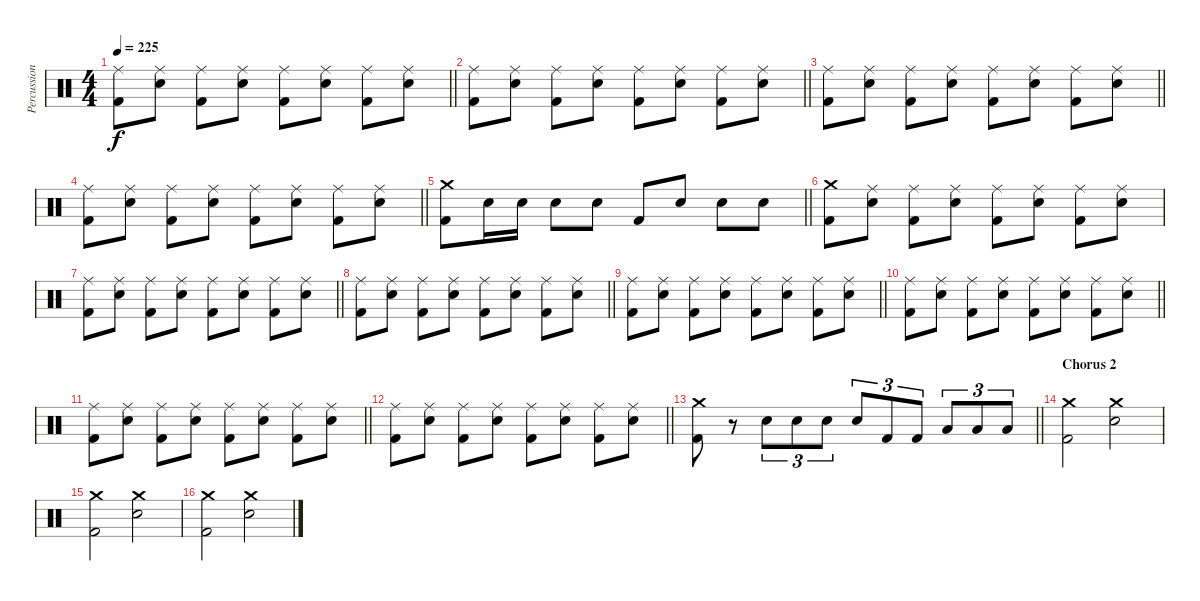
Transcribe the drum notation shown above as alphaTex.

\track ("Percussion" "Percussion") {instrument percussion}
\staff {score}
\articulation defaults
\ts (4 4)
\tempo 225
\clef neutral
\barLineRight lightlight
\ks c
("Ride (middle)" "Kick (hit) 2").8{dy f} ("Ride (middle)" "Electric Snare (hit)").8 ("Ride (middle)" "Kick (hit) 2").8 ("Ride (middle)" "Electric Snare (hit)").8 ("Ride (middle)" "Kick (hit) 2").8 ("Ride (middle)" "Electric Snare (hit)").8 ("Ride (middle)" "Kick (hit) 2").8 ("Ride (middle)" "Electric Snare (hit)").8 |
\barLineRight lightlight
("Ride (middle)" "Kick (hit) 2").8 ("Ride (middle)" "Electric Snare (hit)").8 ("Ride (middle)" "Kick (hit) 2").8 ("Ride (middle)" "Electric Snare (hit)").8 ("Ride (middle)" "Kick (hit) 2").8 ("Ride (middle)" "Electric Snare (hit)").8 ("Ride (middle)" "Kick (hit) 2").8 ("Ride (middle)" "Electric Snare (hit)").8 |
\barLineRight lightlight
("Ride (middle)" "Kick (hit) 2").8 ("Ride (middle)" "Electric Snare (hit)").8 ("Ride (middle)" "Kick (hit) 2").8 ("Ride (middle)" "Electric Snare (hit)").8 ("Ride (middle)" "Kick (hit) 2").8 ("Ride (middle)" "Electric Snare (hit)").8 ("Ride (middle)" "Kick (hit) 2").8 ("Ride (middle)" "Electric Snare (hit)").8 |
\barLineRight lightlight
("Ride (middle)" "Kick (hit) 2").8 ("Ride (middle)" "Electric Snare (hit)").8 ("Ride (middle)" "Kick (hit) 2").8 ("Ride (middle)" "Electric Snare (hit)").8 ("Ride (middle)" "Kick (hit) 2").8 ("Ride (middle)" "Electric Snare (hit)").8 ("Ride (middle)" "Kick (hit) 2").8 ("Ride (middle)" "Electric Snare (hit)").8 |
\barLineRight lightlight
("Crash medium (hit)" "Kick (hit) 2").8 "Electric Snare (hit)".16 "Electric Snare (hit)".16 "Electric Snare (hit)".8 "Electric Snare (hit)".8 "Kick (hit) 2".8 "Electric Snare (hit)".8 "Electric Snare (hit)".8 "Electric Snare (hit)".8 |
("Crash medium (hit)" "Kick (hit) 2").8 ("Ride (middle)" "Electric Snare (hit)").8 ("Ride (middle)" "Kick (hit) 2").8 ("Ride (middle)" "Electric Snare (hit)").8 ("Ride (middle)" "Kick (hit) 2").8 ("Ride (middle)" "Electric Snare (hit)").8 ("Ride (middle)" "Kick (hit) 2").8 ("Ride (middle)" "Electric Snare (hit)").8 |
\barLineRight lightlight
("Ride (middle)" "Kick (hit) 2").8 ("Ride (middle)" "Electric Snare (hit)").8 ("Ride (middle)" "Kick (hit) 2").8 ("Ride (middle)" "Electric Snare (hit)").8 ("Ride (middle)" "Kick (hit) 2").8 ("Ride (middle)" "Electric Snare (hit)").8 ("Ride (middle)" "Kick (hit) 2").8 ("Ride (middle)" "Electric Snare (hit)").8 |
\barLineRight lightlight
("Ride (middle)" "Kick (hit) 2").8 ("Ride (middle)" "Electric Snare (hit)").8 ("Ride (middle)" "Kick (hit) 2").8 ("Ride (middle)" "Electric Snare (hit)").8 ("Ride (middle)" "Kick (hit) 2").8 ("Ride (middle)" "Electric Snare (hit)").8 ("Ride (middle)" "Kick (hit) 2").8 ("Ride (middle)" "Electric Snare (hit)").8 |
\barLineRight lightlight
("Ride (middle)" "Kick (hit) 2").8 ("Ride (middle)" "Electric Snare (hit)").8 ("Ride (middle)" "Kick (hit) 2").8 ("Ride (middle)" "Electric Snare (hit)").8 ("Ride (middle)" "Kick (hit) 2").8 ("Ride (middle)" "Electric Snare (hit)").8 ("Ride (middle)" "Kick (hit) 2").8 ("Ride (middle)" "Electric Snare (hit)").8 |
\barLineRight lightlight
("Ride (middle)" "Kick (hit) 2").8 ("Ride (middle)" "Electric Snare (hit)").8 ("Ride (middle)" "Kick (hit) 2").8 ("Ride (middle)" "Electric Snare (hit)").8 ("Ride (middle)" "Kick (hit) 2").8 ("Ride (middle)" "Electric Snare (hit)").8 ("Ride (middle)" "Kick (hit) 2").8 ("Ride (middle)" "Electric Snare (hit)").8 |
\barLineRight lightlight
("Ride (middle)" "Kick (hit) 2").8 ("Ride (middle)" "Electric Snare (hit)").8 ("Ride (middle)" "Kick (hit) 2").8 ("Ride (middle)" "Electric Snare (hit)").8 ("Ride (middle)" "Kick (hit) 2").8 ("Ride (middle)" "Electric Snare (hit)").8 ("Ride (middle)" "Kick (hit) 2").8 ("Ride (middle)" "Electric Snare (hit)").8 |
\barLineRight lightlight
("Ride (middle)" "Kick (hit) 2").8 ("Ride (middle)" "Electric Snare (hit)").8 ("Ride (middle)" "Kick (hit) 2").8 ("Ride (middle)" "Electric Snare (hit)").8 ("Ride (middle)" "Kick (hit) 2").8 ("Ride (middle)" "Electric Snare (hit)").8 ("Ride (middle)" "Kick (hit) 2").8 ("Ride (middle)" "Electric Snare (hit)").8 |
\barLineRight lightlight
("Crash medium (hit)" "Kick (hit) 2").8 r.8 "Electric Snare (hit)".8{tu (3 2)} "Electric Snare (hit)".8{tu (3 2)} "Electric Snare (hit)".8{tu (3 2)} "Electric Snare (hit)".8{tu (3 2)} "Kick (hit) 2".8{tu (3 2)} "Kick (hit) 2".8{tu (3 2)} "Low Tom (hit)".8{tu (3 2)} "Low Tom (hit)".8{tu (3 2)} "Low Tom (hit)".8{tu (3 2)} |
\section ("" "Chorus 2")
("Crash medium (hit)" "Kick (hit) 2").2 ("Crash medium (hit)" "Electric Snare (hit)").2 |
("Crash medium (hit)" "Kick (hit) 2").2 ("Crash medium (hit)" "Electric Snare (hit)").2 |
("Crash medium (hit)" "Kick (hit) 2").2 ("Crash medium (hit)" "Electric Snare (hit)").2
